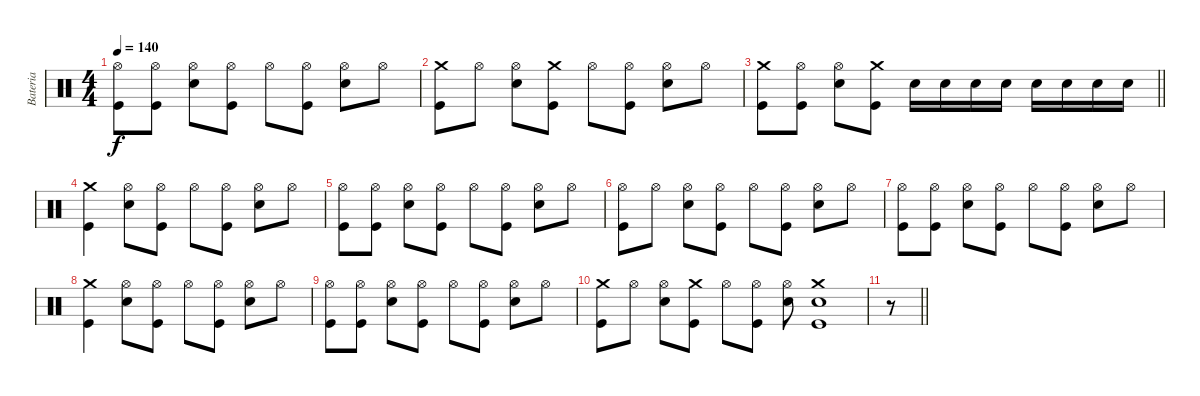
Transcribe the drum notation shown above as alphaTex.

\track ("Bateria" "Bateria") {instrument percussion}
\staff {score}
\articulation defaults
\ts (4 4)
\tempo 140
\clef neutral
\ks c
("Kick (hit)" "Hi-Hat (open)").8{dy f} ("Kick (hit)" "Hi-Hat (open)").8 ("Snare (hit) 2" "Hi-Hat (open)").8 ("Kick (hit)" "Hi-Hat (open)").8 "Hi-Hat (open)".8 ("Kick (hit)" "Hi-Hat (open)").8 ("Snare (hit) 2" "Hi-Hat (open)").8 "Hi-Hat (open)".8 |
("Kick (hit)" "Crash medium (hit)").8 "Hi-Hat (open)".8 ("Snare (hit) 2" "Hi-Hat (open)").8 ("Kick (hit)" "Crash medium (hit)").8 "Hi-Hat (open)".8 ("Kick (hit)" "Hi-Hat (open)").8 ("Snare (hit) 2" "Hi-Hat (open)").8 "Hi-Hat (open)".8 |
\barLineRight lightlight
("Kick (hit)" "Crash medium (hit)").8 ("Kick (hit)" "Hi-Hat (open)").8 ("Snare (hit) 2" "Hi-Hat (open)").8 ("Kick (hit)" "Crash medium (hit)").8 "Snare (hit) 2".16 "Snare (hit) 2".16 "Snare (hit) 2".16 "Snare (hit) 2".16 "Snare (hit) 2".16 "Snare (hit) 2".16 "Snare (hit) 2".16 "Snare (hit) 2".16 |
("Kick (hit)" "Crash medium (hit)").4 ("Snare (hit) 2" "Hi-Hat (open)").8 ("Kick (hit)" "Hi-Hat (open)").8 "Hi-Hat (open)".8 ("Kick (hit)" "Hi-Hat (open)").8 ("Snare (hit) 2" "Hi-Hat (open)").8 "Hi-Hat (open)".8 |
("Kick (hit)" "Hi-Hat (open)").8 ("Kick (hit)" "Hi-Hat (open)").8 ("Snare (hit) 2" "Hi-Hat (open)").8 ("Kick (hit)" "Hi-Hat (open)").8 "Hi-Hat (open)".8 ("Kick (hit)" "Hi-Hat (open)").8 ("Snare (hit) 2" "Hi-Hat (open)").8 "Hi-Hat (open)".8 |
("Kick (hit)" "Hi-Hat (open)").8 "Hi-Hat (open)".8 ("Snare (hit) 2" "Hi-Hat (open)").8 ("Kick (hit)" "Hi-Hat (open)").8 "Hi-Hat (open)".8 ("Kick (hit)" "Hi-Hat (open)").8 ("Snare (hit) 2" "Hi-Hat (open)").8 "Hi-Hat (open)".8 |
("Kick (hit)" "Hi-Hat (open)").8 ("Kick (hit)" "Hi-Hat (open)").8 ("Snare (hit) 2" "Hi-Hat (open)").8 ("Kick (hit)" "Hi-Hat (open)").8 "Hi-Hat (open)".8 ("Kick (hit)" "Hi-Hat (open)").8 ("Snare (hit) 2" "Hi-Hat (open)").8 "Hi-Hat (open)".8 |
("Kick (hit)" "Crash medium (hit)").4 ("Snare (hit) 2" "Hi-Hat (open)").8 ("Kick (hit)" "Hi-Hat (open)").8 "Hi-Hat (open)".8 ("Kick (hit)" "Hi-Hat (open)").8 ("Snare (hit) 2" "Hi-Hat (open)").8 "Hi-Hat (open)".8 |
("Kick (hit)" "Hi-Hat (open)").8 ("Kick (hit)" "Hi-Hat (open)").8 ("Snare (hit) 2" "Hi-Hat (open)").8 ("Kick (hit)" "Hi-Hat (open)").8 "Hi-Hat (open)".8 ("Kick (hit)" "Hi-Hat (open)").8 ("Snare (hit) 2" "Hi-Hat (open)").8 "Hi-Hat (open)".8 |
("Kick (hit)" "Crash medium (hit)").8 "Hi-Hat (open)".8 ("Snare (hit) 2" "Hi-Hat (open)").8 ("Kick (hit)" "Crash medium (hit)").8 "Hi-Hat (open)".8 ("Kick (hit)" "Hi-Hat (open)").8 ("Snare (hit) 2" "Hi-Hat (open)").8 ("Kick (hit)" "Snare (hit) 2" "Crash medium (hit)").1 |
\barLineRight lightlight
r.8
